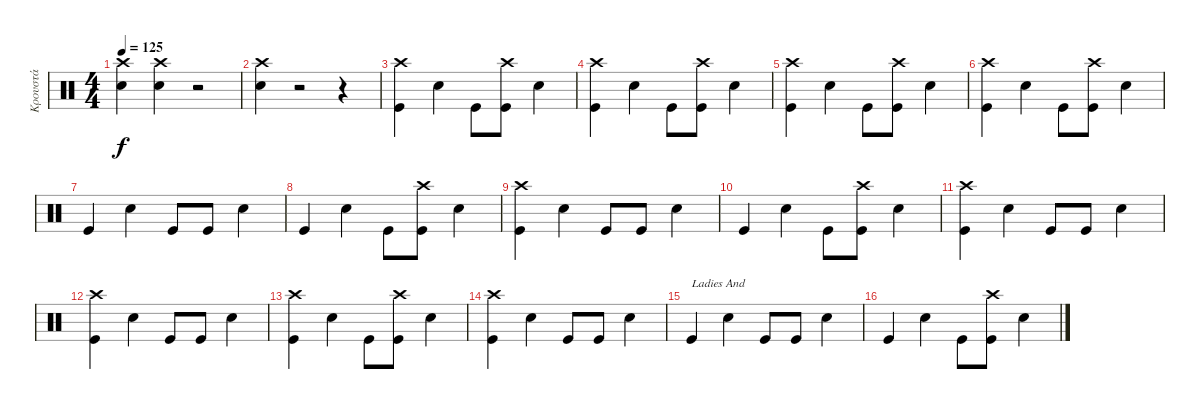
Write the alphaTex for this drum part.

\track ("Κρουστά" "Κρουστά") {instrument percussion}
\staff {score}
\articulation defaults
\ts (4 4)
\tempo 125
\clef neutral
\ks c
("Crash high (hit)" "Electric Snare (hit)").4{dy f} ("Crash high (hit)" "Electric Snare (hit)").4 r.2 |
("Electric Snare (hit)" "Crash high (hit)").4 r.2 r.4 |
("Crash high (hit)" "Kick (hit)").4 "Electric Snare (hit)".4 "Kick (hit)".8 ("Crash high (hit)" "Kick (hit)").8 "Electric Snare (hit)".4 |
("Crash high (hit)" "Kick (hit)").4 "Electric Snare (hit)".4 "Kick (hit)".8 ("Crash high (hit)" "Kick (hit)").8 "Electric Snare (hit)".4 |
("Crash high (hit)" "Kick (hit)").4 "Electric Snare (hit)".4 "Kick (hit)".8 ("Crash high (hit)" "Kick (hit)").8 "Electric Snare (hit)".4 |
("Crash high (hit)" "Kick (hit)").4 "Electric Snare (hit)".4 "Kick (hit)".8 ("Crash high (hit)" "Kick (hit)").8 "Electric Snare (hit)".4 |
"Kick (hit)".4 "Electric Snare (hit)".4 "Kick (hit)".8 "Kick (hit)".8 "Electric Snare (hit)".4 |
"Kick (hit)".4 "Electric Snare (hit)".4 "Kick (hit)".8 ("Crash high (hit)" "Kick (hit)").8 "Electric Snare (hit)".4 |
("Crash high (hit)" "Kick (hit)").4 "Electric Snare (hit)".4 "Kick (hit)".8 "Kick (hit)".8 "Electric Snare (hit)".4 |
"Kick (hit)".4 "Electric Snare (hit)".4 "Kick (hit)".8 ("Crash high (hit)" "Kick (hit)").8 "Electric Snare (hit)".4 |
("Crash high (hit)" "Kick (hit)").4 "Electric Snare (hit)".4 "Kick (hit)".8 "Kick (hit)".8 "Electric Snare (hit)".4 |
("Crash high (hit)" "Kick (hit)").4 "Electric Snare (hit)".4 "Kick (hit)".8 "Kick (hit)".8 "Electric Snare (hit)".4 |
("Crash high (hit)" "Kick (hit)").4 "Electric Snare (hit)".4 "Kick (hit)".8 ("Crash high (hit)" "Kick (hit)").8 "Electric Snare (hit)".4 |
("Crash high (hit)" "Kick (hit)").4 "Electric Snare (hit)".4 "Kick (hit)".8 "Kick (hit)".8 "Electric Snare (hit)".4 |
"Kick (hit)".4{txt "Ladies And"} "Electric Snare (hit)".4 "Kick (hit)".8 "Kick (hit)".8 "Electric Snare (hit)".4 |
"Kick (hit)".4 "Electric Snare (hit)".4 "Kick (hit)".8 ("Crash high (hit)" "Kick (hit)").8 "Electric Snare (hit)".4
